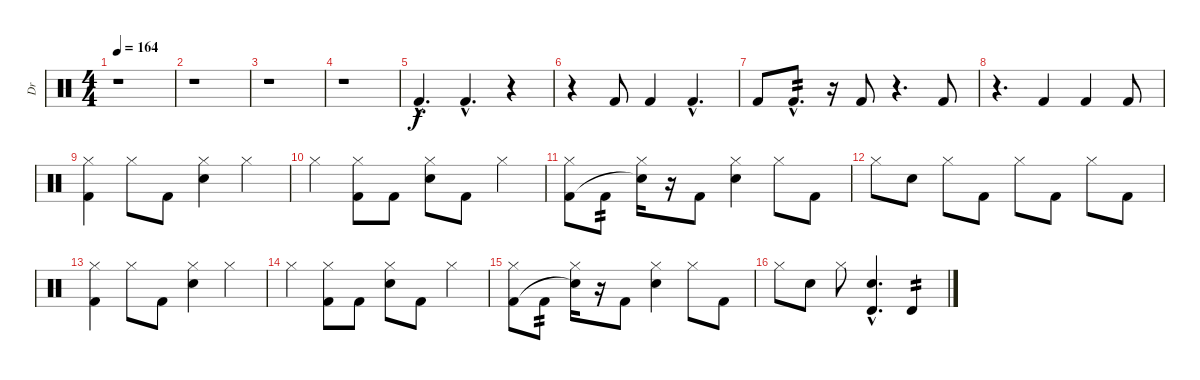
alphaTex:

\track ("Dr" "Dr") {instrument percussion}
\staff {score}
\articulation defaults
\ts (4 4)
\tempo 164
\clef neutral
\ks c
r.1{dy f volume 16} |
r.1 |
r.1 |
r.1 |
"Kick (hit) 2"{hac}.4{d} "Kick (hit) 2"{hac}.4{d} r.4 |
r.4 "Kick (hit) 2".8 "Kick (hit) 2".4 "Kick (hit) 2"{hac}.4{d} |
"Kick (hit) 2".8 "Kick (hit) 2"{hac}.8{d tp 2} r.16 "Kick (hit) 2".8 r.4{d} "Kick (hit) 2".8 |
r.4{d} "Kick (hit) 2".4 "Kick (hit) 2".4 "Kick (hit) 2".8 |
("Hi-Hat (closed)" "Kick (hit) 2").4 "Hi-Hat (closed)".8 "Kick (hit) 2".8 ("Hi-Hat (closed)" "Electric Snare (hit)").4 "Hi-Hat (closed)".4 |
"Hi-Hat (closed)".4 ("Hi-Hat (closed)" "Kick (hit) 2").8 "Kick (hit) 2".8 ("Hi-Hat (closed)" "Electric Snare (hit)").8 "Kick (hit) 2".8 "Hi-Hat (closed)".4 |
("Hi-Hat (closed)" "Kick (hit) 2").8 "Kick (hit) 2".8{tp 2} ("Hi-Hat (closed)" "Snare (hit)"{t}).16 r.16 "Kick (hit) 2".8 ("Hi-Hat (closed)" "Electric Snare (hit)").4 "Hi-Hat (closed)".8 "Kick (hit) 2".8 |
"Hi-Hat (closed)".8 "Electric Snare (hit)".8 "Hi-Hat (closed)".8 "Kick (hit) 2".8 "Hi-Hat (closed)".8 "Kick (hit) 2".8 "Hi-Hat (closed)".8 "Kick (hit) 2".8 |
("Hi-Hat (closed)" "Kick (hit) 2").4 "Hi-Hat (closed)".8 "Kick (hit) 2".8 ("Hi-Hat (closed)" "Electric Snare (hit)").4 "Hi-Hat (closed)".4 |
"Hi-Hat (closed)".4 ("Hi-Hat (closed)" "Kick (hit) 2").8 "Kick (hit) 2".8 ("Hi-Hat (closed)" "Electric Snare (hit)").8 "Kick (hit) 2".8 "Hi-Hat (closed)".4 |
("Hi-Hat (closed)" "Kick (hit) 2").8 "Kick (hit) 2".8{tp 2} ("Hi-Hat (closed)" "Snare (hit)"{t}).16 r.16 "Kick (hit) 2".8 ("Hi-Hat (closed)" "Electric Snare (hit)").4 "Hi-Hat (closed)".8 "Kick (hit) 2".8 |
"Hi-Hat (closed)".8 "Electric Snare (hit)".8 "Hi-Hat (closed)".8 ("Electric Snare (hit)"{hac} "Timbale high (hit)"{hac}).4{d} "Timbale high (hit)".4{tp 2}
